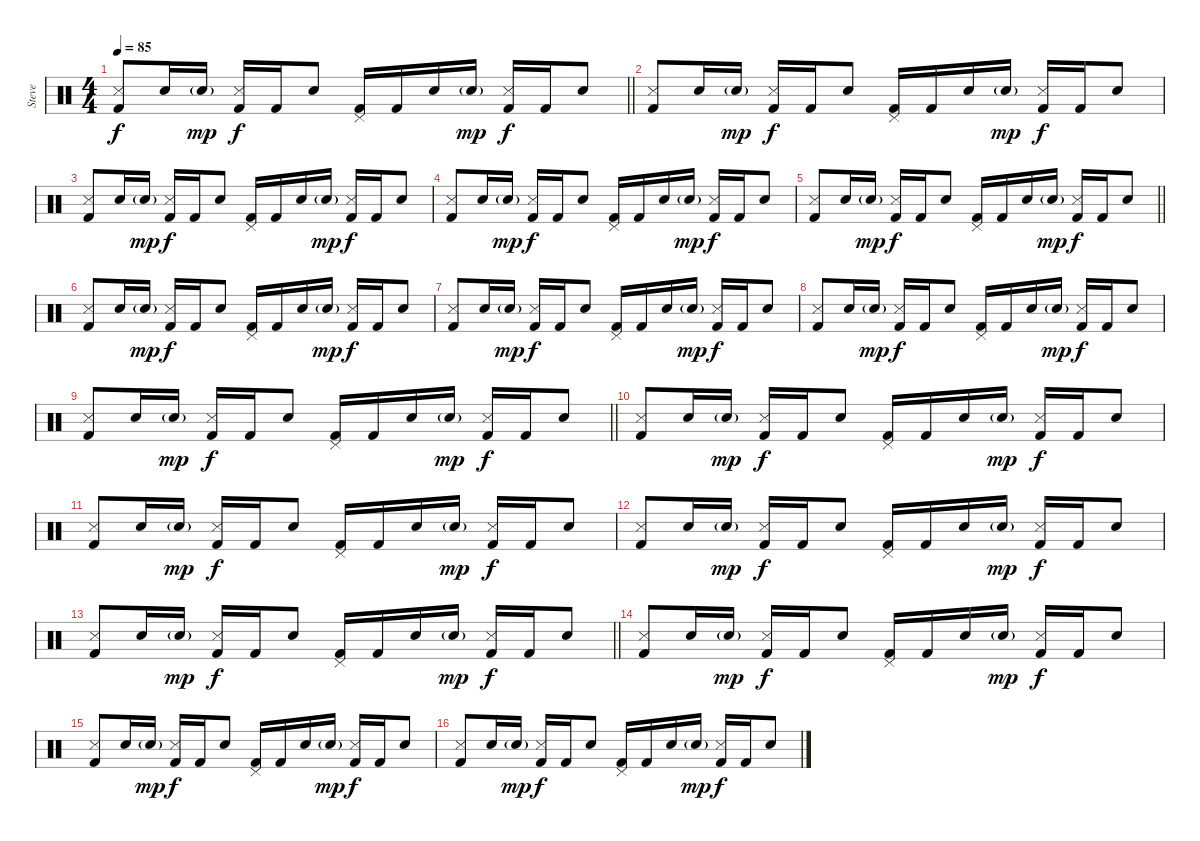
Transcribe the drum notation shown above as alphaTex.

\track ("Steve" "Steve") {instrument percussion}
\staff {score}
\articulation defaults
\ts (4 4)
\tempo 85
\clef neutral
\barLineRight lightlight
\ks c
("Kick (hit) 2" "Snare (side stick) 3").8{dy f} "Snare (hit) 2".16 "Snare (hit) 2"{g}.16{dy mp} ("Kick (hit) 2" "Snare (side stick) 3").16{dy f} "Kick (hit) 2".16 "Snare (hit) 2".8 ("Kick (hit) 2" "Pedal Hi-Hat (hit)").16 "Kick (hit) 2".16 "Snare (hit) 2".16 "Snare (hit) 2"{g}.16{dy mp} ("Kick (hit) 2" "Snare (side stick) 3").16{dy f} "Kick (hit) 2".16 "Snare (hit) 2".8 |
("Kick (hit) 2" "Snare (side stick) 3").8 "Snare (hit) 2".16 "Snare (hit) 2"{g}.16{dy mp} ("Kick (hit) 2" "Snare (side stick) 3").16{dy f} "Kick (hit) 2".16 "Snare (hit) 2".8 ("Kick (hit) 2" "Pedal Hi-Hat (hit)").16 "Kick (hit) 2".16 "Snare (hit) 2".16 "Snare (hit) 2"{g}.16{dy mp} ("Kick (hit) 2" "Snare (side stick) 3").16{dy f} "Kick (hit) 2".16 "Snare (hit) 2".8 |
("Kick (hit) 2" "Snare (side stick) 3").8 "Snare (hit) 2".16 "Snare (hit) 2"{g}.16{dy mp} ("Kick (hit) 2" "Snare (side stick) 3").16{dy f} "Kick (hit) 2".16 "Snare (hit) 2".8 ("Kick (hit) 2" "Pedal Hi-Hat (hit)").16 "Kick (hit) 2".16 "Snare (hit) 2".16 "Snare (hit) 2"{g}.16{dy mp} ("Kick (hit) 2" "Snare (side stick) 3").16{dy f} "Kick (hit) 2".16 "Snare (hit) 2".8 |
("Kick (hit) 2" "Snare (side stick) 3").8 "Snare (hit) 2".16 "Snare (hit) 2"{g}.16{dy mp} ("Kick (hit) 2" "Snare (side stick) 3").16{dy f} "Kick (hit) 2".16 "Snare (hit) 2".8 ("Kick (hit) 2" "Pedal Hi-Hat (hit)").16 "Kick (hit) 2".16 "Snare (hit) 2".16 "Snare (hit) 2"{g}.16{dy mp} ("Kick (hit) 2" "Snare (side stick) 3").16{dy f} "Kick (hit) 2".16 "Snare (hit) 2".8 |
\barLineRight lightlight
("Kick (hit) 2" "Snare (side stick) 3").8 "Snare (hit) 2".16 "Snare (hit) 2"{g}.16{dy mp} ("Kick (hit) 2" "Snare (side stick) 3").16{dy f} "Kick (hit) 2".16 "Snare (hit) 2".8 ("Kick (hit) 2" "Pedal Hi-Hat (hit)").16 "Kick (hit) 2".16 "Snare (hit) 2".16 "Snare (hit) 2"{g}.16{dy mp} ("Kick (hit) 2" "Snare (side stick) 3").16{dy f} "Kick (hit) 2".16 "Snare (hit) 2".8 |
("Kick (hit) 2" "Snare (side stick) 3").8 "Snare (hit) 2".16 "Snare (hit) 2"{g}.16{dy mp} ("Kick (hit) 2" "Snare (side stick) 3").16{dy f} "Kick (hit) 2".16 "Snare (hit) 2".8 ("Kick (hit) 2" "Pedal Hi-Hat (hit)").16 "Kick (hit) 2".16 "Snare (hit) 2".16 "Snare (hit) 2"{g}.16{dy mp} ("Kick (hit) 2" "Snare (side stick) 3").16{dy f} "Kick (hit) 2".16 "Snare (hit) 2".8 |
("Kick (hit) 2" "Snare (side stick) 3").8 "Snare (hit) 2".16 "Snare (hit) 2"{g}.16{dy mp} ("Kick (hit) 2" "Snare (side stick) 3").16{dy f} "Kick (hit) 2".16 "Snare (hit) 2".8 ("Kick (hit) 2" "Pedal Hi-Hat (hit)").16 "Kick (hit) 2".16 "Snare (hit) 2".16 "Snare (hit) 2"{g}.16{dy mp} ("Kick (hit) 2" "Snare (side stick) 3").16{dy f} "Kick (hit) 2".16 "Snare (hit) 2".8 |
("Kick (hit) 2" "Snare (side stick) 3").8 "Snare (hit) 2".16 "Snare (hit) 2"{g}.16{dy mp} ("Kick (hit) 2" "Snare (side stick) 3").16{dy f} "Kick (hit) 2".16 "Snare (hit) 2".8 ("Kick (hit) 2" "Pedal Hi-Hat (hit)").16 "Kick (hit) 2".16 "Snare (hit) 2".16 "Snare (hit) 2"{g}.16{dy mp} ("Kick (hit) 2" "Snare (side stick) 3").16{dy f} "Kick (hit) 2".16 "Snare (hit) 2".8 |
\barLineRight lightlight
("Kick (hit) 2" "Snare (side stick) 3").8 "Snare (hit) 2".16 "Snare (hit) 2"{g}.16{dy mp} ("Kick (hit) 2" "Snare (side stick) 3").16{dy f} "Kick (hit) 2".16 "Snare (hit) 2".8 ("Kick (hit) 2" "Pedal Hi-Hat (hit)").16 "Kick (hit) 2".16 "Snare (hit) 2".16 "Snare (hit) 2"{g}.16{dy mp} ("Kick (hit) 2" "Snare (side stick) 3").16{dy f} "Kick (hit) 2".16 "Snare (hit) 2".8 |
("Kick (hit) 2" "Snare (side stick) 3").8 "Snare (hit) 2".16 "Snare (hit) 2"{g}.16{dy mp} ("Kick (hit) 2" "Snare (side stick) 3").16{dy f} "Kick (hit) 2".16 "Snare (hit) 2".8 ("Kick (hit) 2" "Pedal Hi-Hat (hit)").16 "Kick (hit) 2".16 "Snare (hit) 2".16 "Snare (hit) 2"{g}.16{dy mp} ("Kick (hit) 2" "Snare (side stick) 3").16{dy f} "Kick (hit) 2".16 "Snare (hit) 2".8 |
("Kick (hit) 2" "Snare (side stick) 3").8 "Snare (hit) 2".16 "Snare (hit) 2"{g}.16{dy mp} ("Kick (hit) 2" "Snare (side stick) 3").16{dy f} "Kick (hit) 2".16 "Snare (hit) 2".8 ("Kick (hit) 2" "Pedal Hi-Hat (hit)").16 "Kick (hit) 2".16 "Snare (hit) 2".16 "Snare (hit) 2"{g}.16{dy mp} ("Kick (hit) 2" "Snare (side stick) 3").16{dy f} "Kick (hit) 2".16 "Snare (hit) 2".8 |
("Kick (hit) 2" "Snare (side stick) 3").8 "Snare (hit) 2".16 "Snare (hit) 2"{g}.16{dy mp} ("Kick (hit) 2" "Snare (side stick) 3").16{dy f} "Kick (hit) 2".16 "Snare (hit) 2".8 ("Kick (hit) 2" "Pedal Hi-Hat (hit)").16 "Kick (hit) 2".16 "Snare (hit) 2".16 "Snare (hit) 2"{g}.16{dy mp} ("Kick (hit) 2" "Snare (side stick) 3").16{dy f} "Kick (hit) 2".16 "Snare (hit) 2".8 |
\barLineRight lightlight
("Kick (hit) 2" "Snare (side stick) 3").8 "Snare (hit) 2".16 "Snare (hit) 2"{g}.16{dy mp} ("Kick (hit) 2" "Snare (side stick) 3").16{dy f} "Kick (hit) 2".16 "Snare (hit) 2".8 ("Kick (hit) 2" "Pedal Hi-Hat (hit)").16 "Kick (hit) 2".16 "Snare (hit) 2".16 "Snare (hit) 2"{g}.16{dy mp} ("Kick (hit) 2" "Snare (side stick) 3").16{dy f} "Kick (hit) 2".16 "Snare (hit) 2".8 |
("Kick (hit) 2" "Snare (side stick) 3").8 "Snare (hit) 2".16 "Snare (hit) 2"{g}.16{dy mp} ("Kick (hit) 2" "Snare (side stick) 3").16{dy f} "Kick (hit) 2".16 "Snare (hit) 2".8 ("Kick (hit) 2" "Pedal Hi-Hat (hit)").16 "Kick (hit) 2".16 "Snare (hit) 2".16 "Snare (hit) 2"{g}.16{dy mp} ("Kick (hit) 2" "Snare (side stick) 3").16{dy f} "Kick (hit) 2".16 "Snare (hit) 2".8 |
("Kick (hit) 2" "Snare (side stick) 3").8 "Snare (hit) 2".16 "Snare (hit) 2"{g}.16{dy mp} ("Kick (hit) 2" "Snare (side stick) 3").16{dy f} "Kick (hit) 2".16 "Snare (hit) 2".8 ("Kick (hit) 2" "Pedal Hi-Hat (hit)").16 "Kick (hit) 2".16 "Snare (hit) 2".16 "Snare (hit) 2"{g}.16{dy mp} ("Kick (hit) 2" "Snare (side stick) 3").16{dy f} "Kick (hit) 2".16 "Snare (hit) 2".8 |
("Kick (hit) 2" "Snare (side stick) 3").8 "Snare (hit) 2".16 "Snare (hit) 2"{g}.16{dy mp} ("Kick (hit) 2" "Snare (side stick) 3").16{dy f} "Kick (hit) 2".16 "Snare (hit) 2".8 ("Kick (hit) 2" "Pedal Hi-Hat (hit)").16 "Kick (hit) 2".16 "Snare (hit) 2".16 "Snare (hit) 2"{g}.16{dy mp} ("Kick (hit) 2" "Snare (side stick) 3").16{dy f} "Kick (hit) 2".16 "Snare (hit) 2".8
